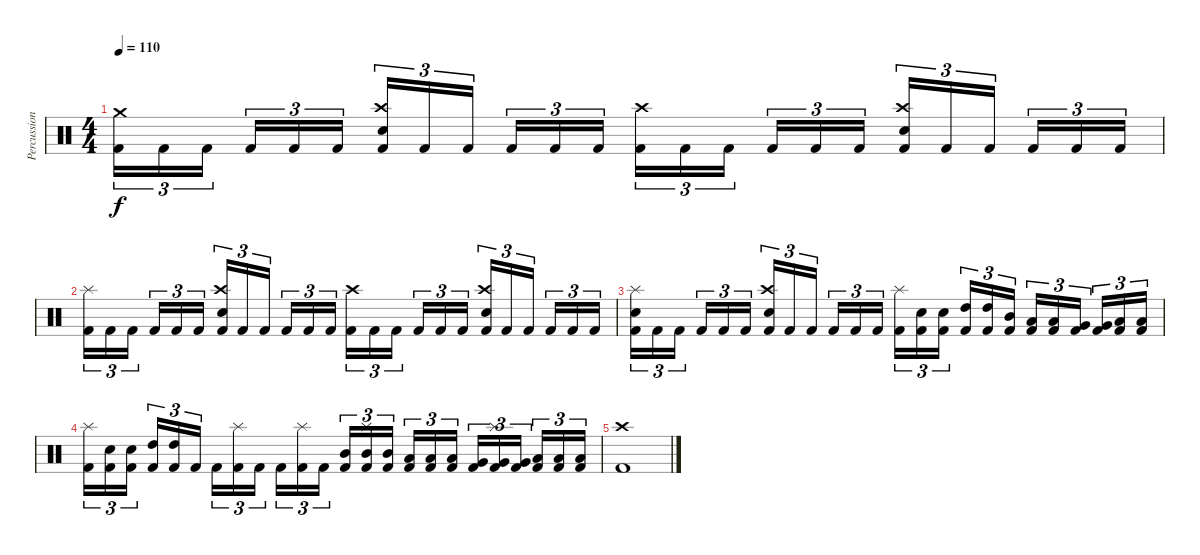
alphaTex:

\track ("Percussion" "Percussion") {instrument percussion}
\staff {score}
\articulation defaults
\ts (4 4)
\tempo 110
\clef neutral
\ks c
("Crash medium (hit)" "Kick (hit) 2").16{tu (3 2) dy f} "Kick (hit) 2".16{tu (3 2)} "Kick (hit) 2".16{tu (3 2)} "Kick (hit) 2".16{tu (3 2)} "Kick (hit) 2".16{tu (3 2)} "Kick (hit) 2".16{tu (3 2)} ("Crash high (hit)" "Electric Snare (hit)" "Kick (hit) 2").16{tu (3 2)} "Kick (hit) 2".16{tu (3 2)} "Kick (hit) 2".16{tu (3 2)} "Kick (hit) 2".16{tu (3 2)} "Kick (hit) 2".16{tu (3 2)} "Kick (hit) 2".16{tu (3 2)} ("Crash high (hit)" "Kick (hit) 2").16{tu (3 2)} "Kick (hit) 2".16{tu (3 2)} "Kick (hit) 2".16{tu (3 2)} "Kick (hit) 2".16{tu (3 2)} "Kick (hit) 2".16{tu (3 2)} "Kick (hit) 2".16{tu (3 2)} ("Crash high (hit)" "Electric Snare (hit)" "Kick (hit) 2").16{tu (3 2)} "Kick (hit) 2".16{tu (3 2)} "Kick (hit) 2".16{tu (3 2)} "Kick (hit) 2".16{tu (3 2)} "Kick (hit) 2".16{tu (3 2)} "Kick (hit) 2".16{tu (3 2)} |
("Splash (hit)" "Kick (hit) 2").16{tu (3 2)} "Kick (hit) 2".16{tu (3 2)} "Kick (hit) 2".16{tu (3 2)} "Kick (hit) 2".16{tu (3 2)} "Kick (hit) 2".16{tu (3 2)} "Kick (hit) 2".16{tu (3 2)} ("Crash high (hit)" "Electric Snare (hit)" "Kick (hit) 2").16{tu (3 2)} "Kick (hit) 2".16{tu (3 2)} "Kick (hit) 2".16{tu (3 2)} "Kick (hit) 2".16{tu (3 2)} "Kick (hit) 2".16{tu (3 2)} "Kick (hit) 2".16{tu (3 2)} ("Crash high (hit)" "Kick (hit) 2").16{tu (3 2)} "Kick (hit) 2".16{tu (3 2)} "Kick (hit) 2".16{tu (3 2)} "Kick (hit) 2".16{tu (3 2)} "Kick (hit) 2".16{tu (3 2)} "Kick (hit) 2".16{tu (3 2)} ("Crash high (hit)" "Electric Snare (hit)" "Kick (hit) 2").16{tu (3 2)} "Kick (hit) 2".16{tu (3 2)} "Kick (hit) 2".16{tu (3 2)} "Kick (hit) 2".16{tu (3 2)} "Kick (hit) 2".16{tu (3 2)} "Kick (hit) 2".16{tu (3 2)} |
("Splash (hit)" "Electric Snare (hit)" "Kick (hit) 2").16{tu (3 2)} "Kick (hit) 2".16{tu (3 2)} "Kick (hit) 2".16{tu (3 2)} "Kick (hit) 2".16{tu (3 2)} "Kick (hit) 2".16{tu (3 2)} "Kick (hit) 2".16{tu (3 2)} ("Crash high (hit)" "Electric Snare (hit)" "Kick (hit) 2").16{tu (3 2)} "Kick (hit) 2".16{tu (3 2)} "Kick (hit) 2".16{tu (3 2)} "Kick (hit) 2".16{tu (3 2)} "Kick (hit) 2".16{tu (3 2)} "Kick (hit) 2".16{tu (3 2)} ("Splash (hit)" "Kick (hit) 2").16{tu (3 2)} ("Electric Snare (hit)" "Kick (hit) 2").16{tu (3 2)} ("Electric Snare (hit)" "Kick (hit) 2").16{tu (3 2)} ("High Tom (hit)" "Kick (hit) 2").16{tu (3 2)} ("High Tom (hit)" "Kick (hit) 2").16{tu (3 2)} ("Mid Tom (hit)" "Kick (hit) 2").16{tu (3 2)} ("Low Tom (hit)" "Kick (hit) 2").16{tu (3 2)} ("Low Tom (hit)" "Kick (hit) 2").16{tu (3 2)} ("Very Low Tom (hit)" "Kick (hit) 2").16{tu (3 2)} ("Very Low Tom (hit)" "Kick (hit) 2").16{tu (3 2)} ("Low Floor Tom (hit)" "Kick (hit) 2").16{tu (3 2)} ("Low Floor Tom (hit)" "Kick (hit) 2").16{tu (3 2)} |
("Splash (hit)" "Kick (hit) 2").16{tu (3 2)} ("Electric Snare (hit)" "Kick (hit) 2").16{tu (3 2)} ("Electric Snare (hit)" "Kick (hit) 2").16{tu (3 2)} ("High Tom (hit)" "Kick (hit) 2").16{tu (3 2)} ("High Tom (hit)" "Kick (hit) 2").16{tu (3 2)} "Kick (hit) 2".16{tu (3 2)} "Kick (hit) 2".16{tu (3 2)} ("Splash (hit)" "Kick (hit) 2").16{tu (3 2)} "Kick (hit) 2".16{tu (3 2)} "Kick (hit) 2".16{tu (3 2)} ("Splash (hit)" "Kick (hit) 2").16{tu (3 2)} "Kick (hit) 2".16{tu (3 2)} ("Mid Tom (hit)" "Kick (hit) 2").16{tu (3 2)} ("Splash (hit)" "Mid Tom (hit)" "Kick (hit) 2").16{tu (3 2)} ("Mid Tom (hit)" "Kick (hit) 2").16{tu (3 2)} ("Low Tom (hit)" "Kick (hit) 2").16{tu (3 2)} ("Low Tom (hit)" "Kick (hit) 2").16{tu (3 2)} ("Low Tom (hit)" "Kick (hit) 2").16{tu (3 2)} ("Very Low Tom (hit)" "Kick (hit) 2").16{tu (3 2)} ("Splash (hit)" "Very Low Tom (hit)" "Kick (hit) 2").16{tu (3 2)} ("Very Low Tom (hit)" "Kick (hit) 2").16{tu (3 2)} ("Low Floor Tom (hit)" "Kick (hit) 2").16{tu (3 2)} ("Low Floor Tom (hit)" "Kick (hit) 2").16{tu (3 2)} ("Low Floor Tom (hit)" "Kick (hit) 2").16{tu (3 2)} |
("Crash high (hit)" "Kick (hit) 2").1
